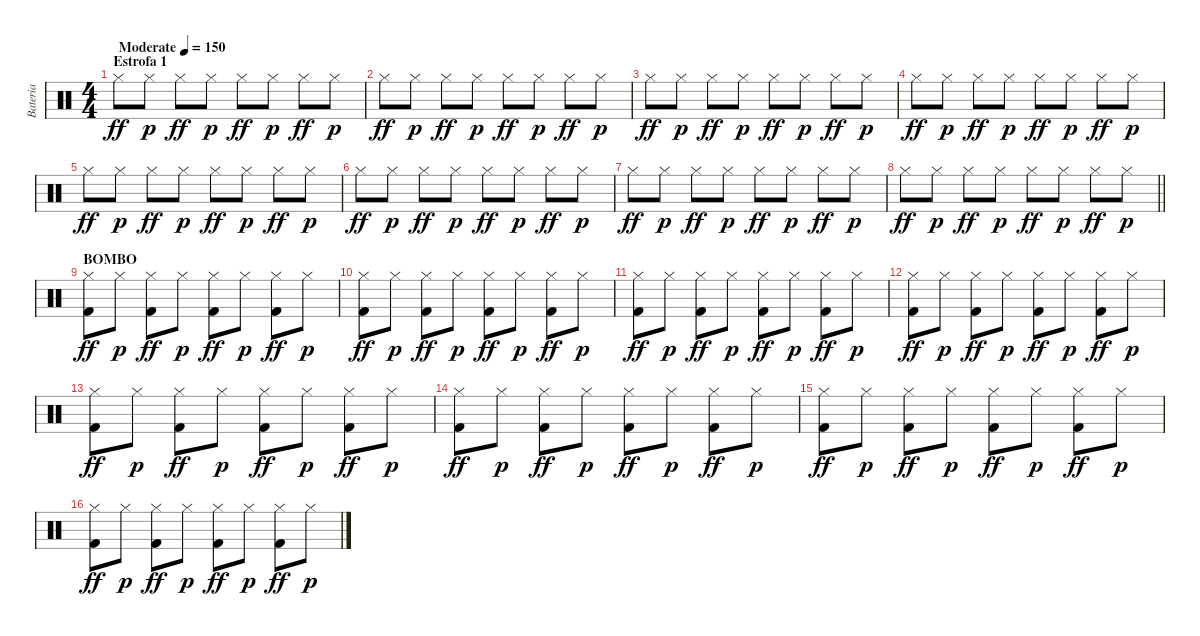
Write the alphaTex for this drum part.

\track ("Bateria" "Bateria") {instrument percussion}
\staff {score}
\articulation defaults
\ts (4 4)
\section ("" "Estrofa 1")
\tempo (150 "Moderate")
\clef neutral
\ks c "Hi-Hat (closed)".8{dy ff} "Hi-Hat (closed)".8{dy p} "Hi-Hat (closed)".8{dy ff} "Hi-Hat (closed)".8{dy p} "Hi-Hat (closed)".8{dy ff} "Hi-Hat (closed)".8{dy p} "Hi-Hat (closed)".8{dy ff} "Hi-Hat (closed)".8{dy p}
|
"Hi-Hat (closed)".8{dy ff} "Hi-Hat (closed)".8{dy p} "Hi-Hat (closed)".8{dy ff} "Hi-Hat (closed)".8{dy p} "Hi-Hat (closed)".8{dy ff} "Hi-Hat (closed)".8{dy p} "Hi-Hat (closed)".8{dy ff} "Hi-Hat (closed)".8{dy p} |
"Hi-Hat (closed)".8{dy ff} "Hi-Hat (closed)".8{dy p} "Hi-Hat (closed)".8{dy ff} "Hi-Hat (closed)".8{dy p} "Hi-Hat (closed)".8{dy ff} "Hi-Hat (closed)".8{dy p} "Hi-Hat (closed)".8{dy ff} "Hi-Hat (closed)".8{dy p} |
"Hi-Hat (closed)".8{dy ff} "Hi-Hat (closed)".8{dy p} "Hi-Hat (closed)".8{dy ff} "Hi-Hat (closed)".8{dy p} "Hi-Hat (closed)".8{dy ff} "Hi-Hat (closed)".8{dy p} "Hi-Hat (closed)".8{dy ff} "Hi-Hat (closed)".8{dy p} |
"Hi-Hat (closed)".8{dy ff} "Hi-Hat (closed)".8{dy p} "Hi-Hat (closed)".8{dy ff} "Hi-Hat (closed)".8{dy p} "Hi-Hat (closed)".8{dy ff} "Hi-Hat (closed)".8{dy p} "Hi-Hat (closed)".8{dy ff} "Hi-Hat (closed)".8{dy p} |
"Hi-Hat (closed)".8{dy ff} "Hi-Hat (closed)".8{dy p} "Hi-Hat (closed)".8{dy ff} "Hi-Hat (closed)".8{dy p} "Hi-Hat (closed)".8{dy ff} "Hi-Hat (closed)".8{dy p} "Hi-Hat (closed)".8{dy ff} "Hi-Hat (closed)".8{dy p} |
"Hi-Hat (closed)".8{dy ff} "Hi-Hat (closed)".8{dy p} "Hi-Hat (closed)".8{dy ff} "Hi-Hat (closed)".8{dy p} "Hi-Hat (closed)".8{dy ff} "Hi-Hat (closed)".8{dy p} "Hi-Hat (closed)".8{dy ff} "Hi-Hat (closed)".8{dy p} |
\barLineRight lightlight "Hi-Hat (closed)".8{dy ff} "Hi-Hat (closed)".8{dy p} "Hi-Hat (closed)".8{dy ff} "Hi-Hat (closed)".8{dy p} "Hi-Hat (closed)".8{dy ff} "Hi-Hat (closed)".8{dy p} "Hi-Hat (closed)".8{dy ff} "Hi-Hat (closed)".8{dy p}
|
\section ("" "BOMBO")
("Hi-Hat (closed)" "Kick (hit) 2").8{dy ff} "Hi-Hat (closed)".8{dy p} ("Hi-Hat (closed)" "Kick (hit) 2").8{dy ff} "Hi-Hat (closed)".8{dy p} ("Hi-Hat (closed)" "Kick (hit) 2").8{dy ff} "Hi-Hat (closed)".8{dy p} ("Hi-Hat (closed)" "Kick (hit) 2").8{dy ff} "Hi-Hat (closed)".8{dy p} |
("Hi-Hat (closed)" "Kick (hit) 2").8{dy ff} "Hi-Hat (closed)".8{dy p} ("Hi-Hat (closed)" "Kick (hit) 2").8{dy ff} "Hi-Hat (closed)".8{dy p} ("Hi-Hat (closed)" "Kick (hit) 2").8{dy ff} "Hi-Hat (closed)".8{dy p} ("Hi-Hat (closed)" "Kick (hit) 2").8{dy ff} "Hi-Hat (closed)".8{dy p} |
("Hi-Hat (closed)" "Kick (hit) 2").8{dy ff} "Hi-Hat (closed)".8{dy p} ("Hi-Hat (closed)" "Kick (hit) 2").8{dy ff} "Hi-Hat (closed)".8{dy p} ("Hi-Hat (closed)" "Kick (hit) 2").8{dy ff} "Hi-Hat (closed)".8{dy p} ("Hi-Hat (closed)" "Kick (hit) 2").8{dy ff} "Hi-Hat (closed)".8{dy p} |
("Hi-Hat (closed)" "Kick (hit) 2").8{dy ff} "Hi-Hat (closed)".8{dy p} ("Hi-Hat (closed)" "Kick (hit) 2").8{dy ff} "Hi-Hat (closed)".8{dy p} ("Hi-Hat (closed)" "Kick (hit) 2").8{dy ff} "Hi-Hat (closed)".8{dy p} ("Hi-Hat (closed)" "Kick (hit) 2").8{dy ff} "Hi-Hat (closed)".8{dy p} |
("Hi-Hat (closed)" "Kick (hit) 2").8{dy ff} "Hi-Hat (closed)".8{dy p} ("Hi-Hat (closed)" "Kick (hit) 2").8{dy ff} "Hi-Hat (closed)".8{dy p} ("Hi-Hat (closed)" "Kick (hit) 2").8{dy ff} "Hi-Hat (closed)".8{dy p} ("Hi-Hat (closed)" "Kick (hit) 2").8{dy ff} "Hi-Hat (closed)".8{dy p} |
("Hi-Hat (closed)" "Kick (hit) 2").8{dy ff} "Hi-Hat (closed)".8{dy p} ("Hi-Hat (closed)" "Kick (hit) 2").8{dy ff} "Hi-Hat (closed)".8{dy p} ("Hi-Hat (closed)" "Kick (hit) 2").8{dy ff} "Hi-Hat (closed)".8{dy p} ("Hi-Hat (closed)" "Kick (hit) 2").8{dy ff} "Hi-Hat (closed)".8{dy p} |
("Hi-Hat (closed)" "Kick (hit) 2").8{dy ff} "Hi-Hat (closed)".8{dy p} ("Hi-Hat (closed)" "Kick (hit) 2").8{dy ff} "Hi-Hat (closed)".8{dy p} ("Hi-Hat (closed)" "Kick (hit) 2").8{dy ff} "Hi-Hat (closed)".8{dy p} ("Hi-Hat (closed)" "Kick (hit) 2").8{dy ff} "Hi-Hat (closed)".8{dy p} |
("Hi-Hat (closed)" "Kick (hit) 2").8{dy ff} "Hi-Hat (closed)".8{dy p} ("Hi-Hat (closed)" "Kick (hit) 2").8{dy ff} "Hi-Hat (closed)".8{dy p} ("Hi-Hat (closed)" "Kick (hit) 2").8{dy ff} "Hi-Hat (closed)".8{dy p} ("Hi-Hat (closed)" "Kick (hit) 2").8{dy ff} "Hi-Hat (closed)".8{dy p}
